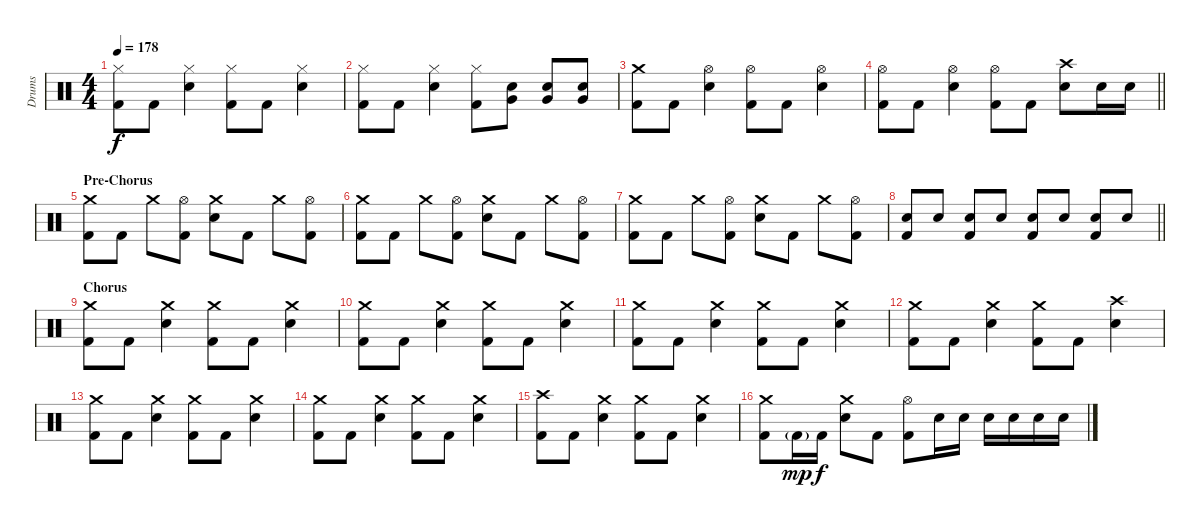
\track ("Drums" "Drums") {instrument percussion}
\staff {score}
\articulation defaults
\ts (4 4)
\tempo 178
\clef neutral
\ks c
("Hi-Hat (closed)" "Kick (hit) 2").8{dy f} "Kick (hit) 2".8 ("Hi-Hat (closed)" "Electric Snare (hit)").4 ("Hi-Hat (closed)" "Kick (hit) 2").8 "Kick (hit) 2".8 ("Hi-Hat (closed)" "Electric Snare (hit)").4 |
("Hi-Hat (closed)" "Kick (hit) 2").8 "Kick (hit) 2".8 ("Hi-Hat (closed)" "Electric Snare (hit)").4 ("Hi-Hat (closed)" "Kick (hit) 2").8 ("Very Low Tom (hit)" "Electric Snare (hit)").8 ("Very Low Tom (hit)" "Electric Snare (hit)").8 ("Very Low Tom (hit)" "Electric Snare (hit)").8 |
("Crash medium (hit)" "Kick (hit) 2").8 "Kick (hit) 2".8 ("Hi-Hat (open)" "Electric Snare (hit)").4 ("Hi-Hat (open)" "Kick (hit) 2").8 "Kick (hit) 2".8 ("Hi-Hat (open)" "Electric Snare (hit)").4 |
\barLineRight lightlight
("Hi-Hat (open)" "Kick (hit) 2").8 "Kick (hit) 2".8 ("Hi-Hat (open)" "Electric Snare (hit)").4 ("Hi-Hat (open)" "Kick (hit) 2").8 "Kick (hit) 2".8 ("Crash high (hit)" "Electric Snare (hit)").8 "Electric Snare (hit)".16 "Electric Snare (hit)".16 |
\section ("" "Pre-Chorus")
("Crash medium (hit)" "Kick (hit) 2").8 "Kick (hit) 2".8 "Crash medium (hit)".8 ("Hi-Hat (open)" "Kick (hit) 2").8 ("Crash medium (hit)" "Electric Snare (hit)").8 "Kick (hit) 2".8 "Crash medium (hit)".8 ("Hi-Hat (open)" "Kick (hit) 2").8 |
("Crash medium (hit)" "Kick (hit) 2").8 "Kick (hit) 2".8 "Crash medium (hit)".8 ("Hi-Hat (open)" "Kick (hit) 2").8 ("Crash medium (hit)" "Electric Snare (hit)").8 "Kick (hit) 2".8 "Crash medium (hit)".8 ("Hi-Hat (open)" "Kick (hit) 2").8 |
("Crash medium (hit)" "Kick (hit) 2").8 "Kick (hit) 2".8 "Crash medium (hit)".8 ("Hi-Hat (open)" "Kick (hit) 2").8 ("Crash medium (hit)" "Electric Snare (hit)").8 "Kick (hit) 2".8 "Crash medium (hit)".8 ("Hi-Hat (open)" "Kick (hit) 2").8 |
\barLineRight lightlight
("Electric Snare (hit)" "Kick (hit) 2").8 "Electric Snare (hit)".8 ("Electric Snare (hit)" "Kick (hit) 2").8 "Electric Snare (hit)".8 ("Electric Snare (hit)" "Kick (hit) 2").8 "Electric Snare (hit)".8 ("Electric Snare (hit)" "Kick (hit) 2").8 "Electric Snare (hit)".8 |
\section ("" "Chorus")
("Crash medium (hit)" "Kick (hit) 2").8 "Kick (hit) 2".8 ("Crash medium (hit)" "Electric Snare (hit)").4 ("Crash medium (hit)" "Kick (hit) 2").8 "Kick (hit) 2".8 ("Crash medium (hit)" "Electric Snare (hit)").4 |
("Crash medium (hit)" "Kick (hit) 2").8 "Kick (hit) 2".8 ("Crash medium (hit)" "Electric Snare (hit)").4 ("Crash medium (hit)" "Kick (hit) 2").8 "Kick (hit) 2".8 ("Crash medium (hit)" "Electric Snare (hit)").4 |
("Crash medium (hit)" "Kick (hit) 2").8 "Kick (hit) 2".8 ("Crash medium (hit)" "Electric Snare (hit)").4 ("Crash medium (hit)" "Kick (hit) 2").8 "Kick (hit) 2".8 ("Crash medium (hit)" "Electric Snare (hit)").4 |
("Crash medium (hit)" "Kick (hit) 2").8 "Kick (hit) 2".8 ("Crash medium (hit)" "Electric Snare (hit)").4 ("Crash medium (hit)" "Kick (hit) 2").8 "Kick (hit) 2".8 ("Crash high (hit)" "Electric Snare (hit)").4 |
("Crash medium (hit)" "Kick (hit) 2").8 "Kick (hit) 2".8 ("Crash medium (hit)" "Electric Snare (hit)").4 ("Crash medium (hit)" "Kick (hit) 2").8 "Kick (hit) 2".8 ("Crash medium (hit)" "Electric Snare (hit)").4 |
("Crash medium (hit)" "Kick (hit) 2").8 "Kick (hit) 2".8 ("Crash medium (hit)" "Electric Snare (hit)").4 ("Crash medium (hit)" "Kick (hit) 2").8 "Kick (hit) 2".8 ("Crash medium (hit)" "Electric Snare (hit)").4 |
("Crash high (hit)" "Kick (hit) 2").8 "Kick (hit) 2".8 ("Crash medium (hit)" "Electric Snare (hit)").4 ("Crash medium (hit)" "Kick (hit) 2").8 "Kick (hit) 2".8 ("Crash medium (hit)" "Electric Snare (hit)").4 |
("Crash medium (hit)" "Kick (hit) 2").8 "Kick (hit) 2"{g}.16{dy mp} "Kick (hit) 2".16{dy f} ("Crash medium (hit)" "Electric Snare (hit)").8 "Kick (hit) 2".8 ("Hi-Hat (open)" "Kick (hit) 2").8 "Electric Snare (hit)".16 "Electric Snare (hit)".16 "Electric Snare (hit)".16 "Electric Snare (hit)".16 "Electric Snare (hit)".16 "Electric Snare (hit)".16
